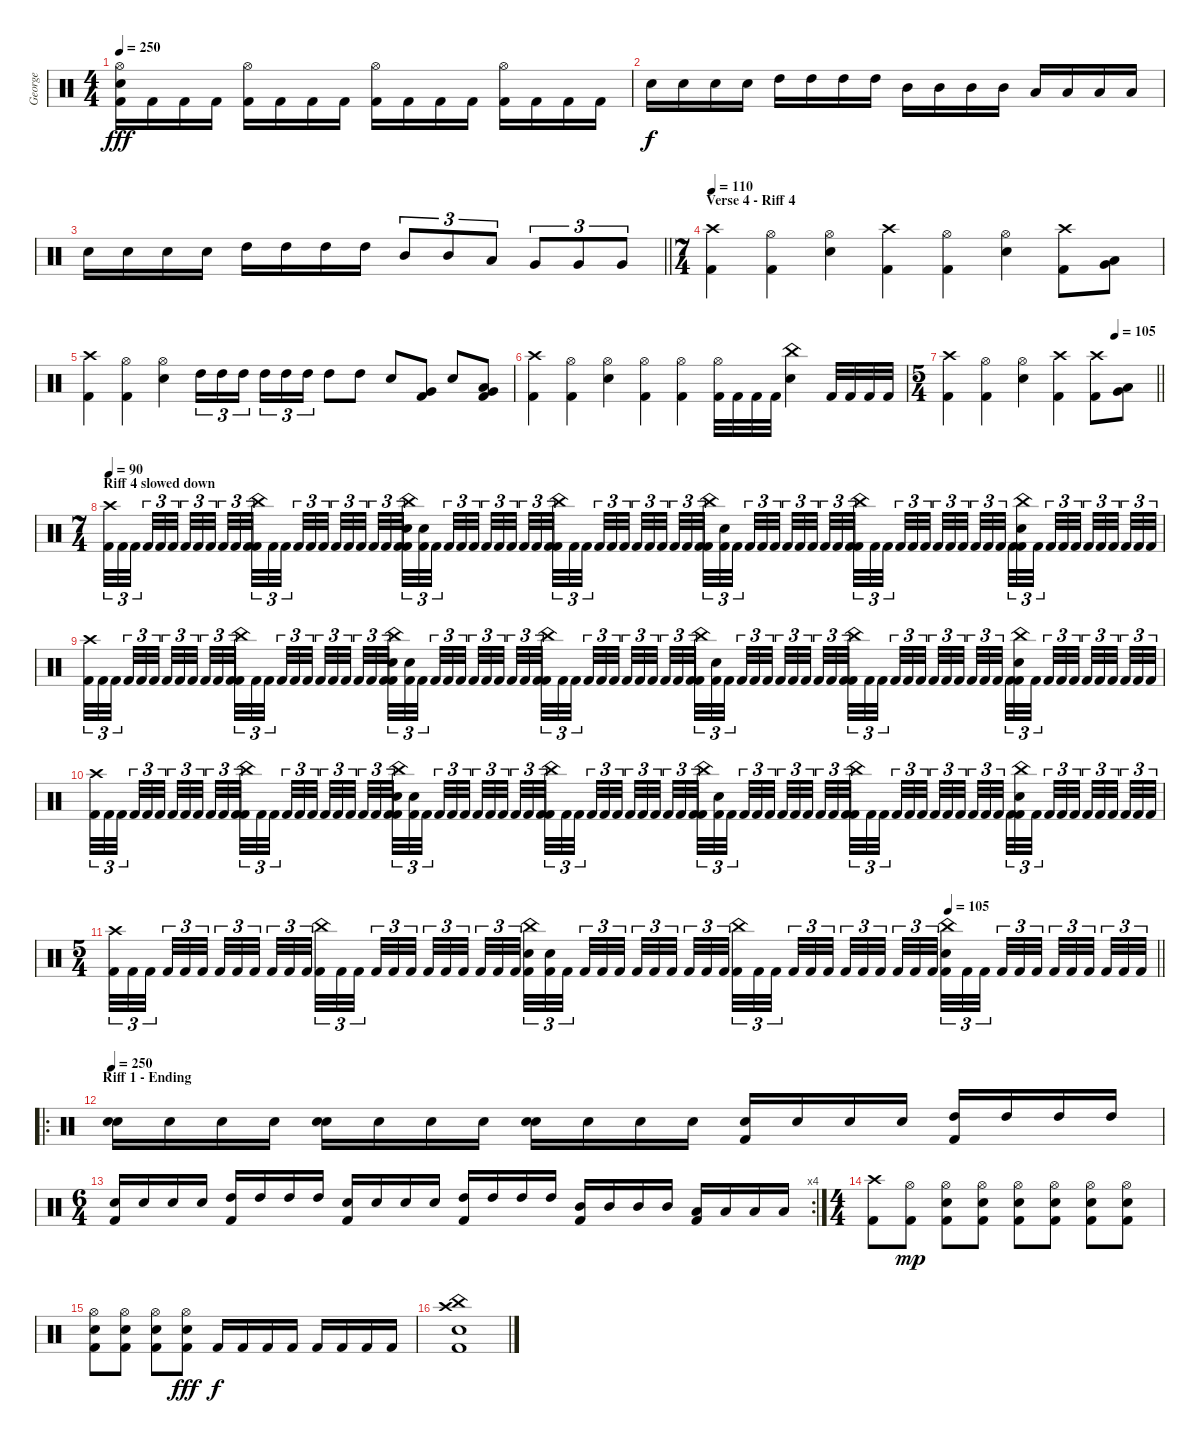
\track ("George" "George") {instrument percussion}
\staff {score}
\articulation defaults
\ts (4 4)
\tempo 250
\clef neutral
\ks c
("Hi-Hat (open)" "Snare (hit) 2" "Kick (hit) 2").16{dy fff} "Kick (hit) 2".16 "Kick (hit) 2".16 "Kick (hit) 2".16 ("Hi-Hat (open)" "Kick (hit) 2").16 "Kick (hit) 2".16 "Kick (hit) 2".16 "Kick (hit) 2".16 ("Hi-Hat (open)" "Kick (hit) 2").16 "Kick (hit) 2".16 "Kick (hit) 2".16 "Kick (hit) 2".16 ("Hi-Hat (open)" "Kick (hit) 2").16 "Kick (hit) 2".16 "Kick (hit) 2".16 "Kick (hit) 2".16 |
"Snare (hit) 2".16{dy f} "Snare (hit) 2".16 "Snare (hit) 2".16 "Snare (hit) 2".16 "High Tom (hit)".16 "High Tom (hit)".16 "High Tom (hit)".16 "High Tom (hit)".16 "Mid Tom (hit)".16 "Mid Tom (hit)".16 "Mid Tom (hit)".16 "Mid Tom (hit)".16 "Low Tom (hit)".16 "Low Tom (hit)".16 "Low Tom (hit)".16 "Low Tom (hit)".16 |
\barLineRight lightlight "Snare (hit) 2".16 "Snare (hit) 2".16 "Snare (hit) 2".16 "Snare (hit) 2".16 "High Tom (hit)".16 "High Tom (hit)".16 "High Tom (hit)".16 "High Tom (hit)".16 "Mid Tom (hit)".8{tu (3 2)} "Mid Tom (hit)".8{tu (3 2)} "Low Tom (hit)".8{tu (3 2)} "Very Low Tom (hit)".8{tu (3 2)} "Very Low Tom (hit)".8{tu (3 2)} "Very Low Tom (hit)".8{tu (3 2)}
|
\ts (7 4)
\section ("" "Verse 4 - Riff 4")
\tempo 110
("Crash high (hit)" "Kick (hit) 2").4 ("Kick (hit) 2" "Hi-Hat (open)").4 ("Hi-Hat (open)" "Snare (hit) 2").4 ("Crash high (hit)" "Kick (hit) 2").4 ("Kick (hit) 2" "Hi-Hat (open)").4 ("Hi-Hat (open)" "Snare (hit) 2").4 ("Crash high (hit)" "Kick (hit) 2").8 ("Low Tom (hit)" "Very Low Tom (hit)").8 |
("Crash high (hit)" "Kick (hit) 2").4 ("Kick (hit) 2" "Hi-Hat (open)").4 ("Hi-Hat (open)" "Snare (hit) 2").4 "High Tom (hit)".16{tu (3 2)} "High Tom (hit)".16{tu (3 2)} "High Tom (hit)".16{tu (3 2) beam splitsecondary} "High Tom (hit)".16{tu (3 2)} "High Tom (hit)".16{tu (3 2)} "High Tom (hit)".16{tu (3 2)} "High Tom (hit)".8 "High Tom (hit)".8 "Snare (hit) 2".8 ("Very Low Tom (hit)" "Kick (hit) 2").8 "Snare (hit) 2".8 ("Very Low Tom (hit)" "Low Tom (hit)" "Kick (hit) 2").8 |
("Crash high (hit)" "Kick (hit) 2").4 ("Kick (hit) 2" "Hi-Hat (open)").4 ("Hi-Hat (open)" "Snare (hit) 2").4 ("Hi-Hat (open)" "Kick (hit) 2").4 ("Hi-Hat (open)" "Kick (hit) 2").4 ("Hi-Hat (open)" "Kick (hit) 2").32 "Kick (hit) 2".32 "Kick (hit) 2".32 "Kick (hit) 2".32 ("China (hit)" "Snare (hit) 2").4 "Kick (hit) 2".32 "Kick (hit) 2".32 "Kick (hit) 2".32 "Kick (hit) 2".32 |
\ts (5 4)
\tempo (105 0.8)
\barLineRight lightlight
("Crash high (hit)" "Kick (hit) 2").4 ("Kick (hit) 2" "Hi-Hat (open)").4 ("Hi-Hat (open)" "Snare (hit) 2").4 ("Crash high (hit)" "Kick (hit) 2").4 ("Crash high (hit)" "Kick (hit) 2").8 ("Low Tom (hit)" "Very Low Tom (hit)").8 |
\ts (7 4)
\section ("" "Riff 4 slowed down")
\tempo 90
("Crash high (hit)" "Kick (hit) 2").32{tu (3 2)} "Kick (hit) 2".32{tu (3 2)} "Kick (hit) 2".32{tu (3 2) beam splitsecondary} "Kick (hit) 2".32{tu (3 2)} "Kick (hit) 2".32{tu (3 2)} "Kick (hit) 2".32{tu (3 2) beam splitsecondary} "Kick (hit) 2".32{tu (3 2)} "Kick (hit) 2".32{tu (3 2)} "Kick (hit) 2".32{tu (3 2) beam splitsecondary} "Kick (hit) 2".32{tu (3 2)} "Kick (hit) 2".32{tu (3 2)} "Kick (hit) 2".32{tu (3 2)} ("China (hit)" "Kick (hit) 2").32{tu (3 2)} "Kick (hit) 2".32{tu (3 2)} "Kick (hit) 2".32{tu (3 2) beam splitsecondary} "Kick (hit) 2".32{tu (3 2)} "Kick (hit) 2".32{tu (3 2)} "Kick (hit) 2".32{tu (3 2) beam splitsecondary} "Kick (hit) 2".32{tu (3 2)} "Kick (hit) 2".32{tu (3 2)} "Kick (hit) 2".32{tu (3 2) beam splitsecondary} "Kick (hit) 2".32{tu (3 2)} "Kick (hit) 2".32{tu (3 2)} "Kick (hit) 2".32{tu (3 2)} ("Snare (hit) 2" "China (hit)" "Kick (hit) 2").32{tu (3 2)} ("Snare (hit)" "Kick (hit) 2").32{tu (3 2)} "Kick (hit) 2".32{tu (3 2) beam splitsecondary} "Kick (hit) 2".32{tu (3 2)} "Kick (hit) 2".32{tu (3 2)} "Kick (hit) 2".32{tu (3 2) beam splitsecondary} "Kick (hit) 2".32{tu (3 2)} "Kick (hit) 2".32{tu (3 2)} "Kick (hit) 2".32{tu (3 2) beam splitsecondary} "Kick (hit) 2".32{tu (3 2)} "Kick (hit) 2".32{tu (3 2)} "Kick (hit) 2".32{tu (3 2)} ("China (hit)" "Kick (hit) 2").32{tu (3 2)} "Kick (hit) 2".32{tu (3 2)} "Kick (hit) 2".32{tu (3 2) beam splitsecondary} "Kick (hit) 2".32{tu (3 2)} "Kick (hit) 2".32{tu (3 2)} "Kick (hit) 2".32{tu (3 2) beam splitsecondary} "Kick (hit) 2".32{tu (3 2)} "Kick (hit) 2".32{tu (3 2)} "Kick (hit) 2".32{tu (3 2) beam splitsecondary} "Kick (hit) 2".32{tu (3 2)} "Kick (hit) 2".32{tu (3 2)} "Kick (hit) 2".32{tu (3 2)} ("China (hit)" "Kick (hit) 2").32{tu (3 2)} ("Snare (hit)" "Kick (hit) 2").32{tu (3 2)} "Kick (hit) 2".32{tu (3 2) beam splitsecondary} "Kick (hit) 2".32{tu (3 2)} "Kick (hit) 2".32{tu (3 2)} "Kick (hit) 2".32{tu (3 2) beam splitsecondary} "Kick (hit) 2".32{tu (3 2)} "Kick (hit) 2".32{tu (3 2)} "Kick (hit) 2".32{tu (3 2) beam splitsecondary} "Kick (hit) 2".32{tu (3 2)} "Kick (hit) 2".32{tu (3 2)} "Kick (hit) 2".32{tu (3 2)} ("China (hit)" "Kick (hit) 2").32{tu (3 2)} "Kick (hit) 2".32{tu (3 2)} "Kick (hit) 2".32{tu (3 2) beam splitsecondary} "Kick (hit) 2".32{tu (3 2)} "Kick (hit) 2".32{tu (3 2)} "Kick (hit) 2".32{tu (3 2) beam splitsecondary} "Kick (hit) 2".32{tu (3 2)} "Kick (hit) 2".32{tu (3 2)} "Kick (hit) 2".32{tu (3 2) beam splitsecondary} "Kick (hit) 2".32{tu (3 2)} "Kick (hit) 2".32{tu (3 2)} "Kick (hit) 2".32{tu (3 2)} "Kick (hit) 2".32{tu (3 2)} ("Snare (hit) 2" "China (hit)" "Kick (hit) 2").32{tu (3 2)} "Kick (hit) 2".32{tu (3 2) beam splitsecondary} "Kick (hit) 2".32{tu (3 2)} "Kick (hit) 2".32{tu (3 2)} "Kick (hit) 2".32{tu (3 2) beam splitsecondary} "Kick (hit) 2".32{tu (3 2)} "Kick (hit) 2".32{tu (3 2)} "Kick (hit) 2".32{tu (3 2) beam splitsecondary} "Kick (hit) 2".32{tu (3 2)} "Kick (hit) 2".32{tu (3 2)} "Kick (hit) 2".32{tu (3 2)} |
("Crash high (hit)" "Kick (hit) 2").32{tu (3 2)} "Kick (hit) 2".32{tu (3 2)} "Kick (hit) 2".32{tu (3 2) beam splitsecondary} "Kick (hit) 2".32{tu (3 2)} "Kick (hit) 2".32{tu (3 2)} "Kick (hit) 2".32{tu (3 2) beam splitsecondary} "Kick (hit) 2".32{tu (3 2)} "Kick (hit) 2".32{tu (3 2)} "Kick (hit) 2".32{tu (3 2) beam splitsecondary} "Kick (hit) 2".32{tu (3 2)} "Kick (hit) 2".32{tu (3 2)} "Kick (hit) 2".32{tu (3 2)} ("China (hit)" "Kick (hit) 2").32{tu (3 2)} "Kick (hit) 2".32{tu (3 2)} "Kick (hit) 2".32{tu (3 2) beam splitsecondary} "Kick (hit) 2".32{tu (3 2)} "Kick (hit) 2".32{tu (3 2)} "Kick (hit) 2".32{tu (3 2) beam splitsecondary} "Kick (hit) 2".32{tu (3 2)} "Kick (hit) 2".32{tu (3 2)} "Kick (hit) 2".32{tu (3 2) beam splitsecondary} "Kick (hit) 2".32{tu (3 2)} "Kick (hit) 2".32{tu (3 2)} "Kick (hit) 2".32{tu (3 2)} ("Snare (hit) 2" "China (hit)" "Kick (hit) 2").32{tu (3 2)} ("Snare (hit)" "Kick (hit) 2").32{tu (3 2)} "Kick (hit) 2".32{tu (3 2) beam splitsecondary} "Kick (hit) 2".32{tu (3 2)} "Kick (hit) 2".32{tu (3 2)} "Kick (hit) 2".32{tu (3 2) beam splitsecondary} "Kick (hit) 2".32{tu (3 2)} "Kick (hit) 2".32{tu (3 2)} "Kick (hit) 2".32{tu (3 2) beam splitsecondary} "Kick (hit) 2".32{tu (3 2)} "Kick (hit) 2".32{tu (3 2)} "Kick (hit) 2".32{tu (3 2)} ("China (hit)" "Kick (hit) 2").32{tu (3 2)} "Kick (hit) 2".32{tu (3 2)} "Kick (hit) 2".32{tu (3 2) beam splitsecondary} "Kick (hit) 2".32{tu (3 2)} "Kick (hit) 2".32{tu (3 2)} "Kick (hit) 2".32{tu (3 2) beam splitsecondary} "Kick (hit) 2".32{tu (3 2)} "Kick (hit) 2".32{tu (3 2)} "Kick (hit) 2".32{tu (3 2) beam splitsecondary} "Kick (hit) 2".32{tu (3 2)} "Kick (hit) 2".32{tu (3 2)} "Kick (hit) 2".32{tu (3 2)} ("China (hit)" "Kick (hit) 2").32{tu (3 2)} ("Snare (hit)" "Kick (hit) 2").32{tu (3 2)} "Kick (hit) 2".32{tu (3 2) beam splitsecondary} "Kick (hit) 2".32{tu (3 2)} "Kick (hit) 2".32{tu (3 2)} "Kick (hit) 2".32{tu (3 2) beam splitsecondary} "Kick (hit) 2".32{tu (3 2)} "Kick (hit) 2".32{tu (3 2)} "Kick (hit) 2".32{tu (3 2) beam splitsecondary} "Kick (hit) 2".32{tu (3 2)} "Kick (hit) 2".32{tu (3 2)} "Kick (hit) 2".32{tu (3 2)} ("China (hit)" "Kick (hit) 2").32{tu (3 2)} "Kick (hit) 2".32{tu (3 2)} "Kick (hit) 2".32{tu (3 2) beam splitsecondary} "Kick (hit) 2".32{tu (3 2)} "Kick (hit) 2".32{tu (3 2)} "Kick (hit) 2".32{tu (3 2) beam splitsecondary} "Kick (hit) 2".32{tu (3 2)} "Kick (hit) 2".32{tu (3 2)} "Kick (hit) 2".32{tu (3 2) beam splitsecondary} "Kick (hit) 2".32{tu (3 2)} "Kick (hit) 2".32{tu (3 2)} "Kick (hit) 2".32{tu (3 2)} "Kick (hit) 2".32{tu (3 2)} ("Snare (hit) 2" "China (hit)" "Kick (hit) 2").32{tu (3 2)} "Kick (hit) 2".32{tu (3 2) beam splitsecondary} "Kick (hit) 2".32{tu (3 2)} "Kick (hit) 2".32{tu (3 2)} "Kick (hit) 2".32{tu (3 2) beam splitsecondary} "Kick (hit) 2".32{tu (3 2)} "Kick (hit) 2".32{tu (3 2)} "Kick (hit) 2".32{tu (3 2) beam splitsecondary} "Kick (hit) 2".32{tu (3 2)} "Kick (hit) 2".32{tu (3 2)} "Kick (hit) 2".32{tu (3 2)} |
("Crash high (hit)" "Kick (hit) 2").32{tu (3 2)} "Kick (hit) 2".32{tu (3 2)} "Kick (hit) 2".32{tu (3 2) beam splitsecondary} "Kick (hit) 2".32{tu (3 2)} "Kick (hit) 2".32{tu (3 2)} "Kick (hit) 2".32{tu (3 2) beam splitsecondary} "Kick (hit) 2".32{tu (3 2)} "Kick (hit) 2".32{tu (3 2)} "Kick (hit) 2".32{tu (3 2) beam splitsecondary} "Kick (hit) 2".32{tu (3 2)} "Kick (hit) 2".32{tu (3 2)} "Kick (hit) 2".32{tu (3 2)} ("China (hit)" "Kick (hit) 2").32{tu (3 2)} "Kick (hit) 2".32{tu (3 2)} "Kick (hit) 2".32{tu (3 2) beam splitsecondary} "Kick (hit) 2".32{tu (3 2)} "Kick (hit) 2".32{tu (3 2)} "Kick (hit) 2".32{tu (3 2) beam splitsecondary} "Kick (hit) 2".32{tu (3 2)} "Kick (hit) 2".32{tu (3 2)} "Kick (hit) 2".32{tu (3 2) beam splitsecondary} "Kick (hit) 2".32{tu (3 2)} "Kick (hit) 2".32{tu (3 2)} "Kick (hit) 2".32{tu (3 2)} ("Snare (hit) 2" "China (hit)" "Kick (hit) 2").32{tu (3 2)} ("Snare (hit)" "Kick (hit) 2").32{tu (3 2)} "Kick (hit) 2".32{tu (3 2) beam splitsecondary} "Kick (hit) 2".32{tu (3 2)} "Kick (hit) 2".32{tu (3 2)} "Kick (hit) 2".32{tu (3 2) beam splitsecondary} "Kick (hit) 2".32{tu (3 2)} "Kick (hit) 2".32{tu (3 2)} "Kick (hit) 2".32{tu (3 2) beam splitsecondary} "Kick (hit) 2".32{tu (3 2)} "Kick (hit) 2".32{tu (3 2)} "Kick (hit) 2".32{tu (3 2)} ("China (hit)" "Kick (hit) 2").32{tu (3 2)} "Kick (hit) 2".32{tu (3 2)} "Kick (hit) 2".32{tu (3 2) beam splitsecondary} "Kick (hit) 2".32{tu (3 2)} "Kick (hit) 2".32{tu (3 2)} "Kick (hit) 2".32{tu (3 2) beam splitsecondary} "Kick (hit) 2".32{tu (3 2)} "Kick (hit) 2".32{tu (3 2)} "Kick (hit) 2".32{tu (3 2) beam splitsecondary} "Kick (hit) 2".32{tu (3 2)} "Kick (hit) 2".32{tu (3 2)} "Kick (hit) 2".32{tu (3 2)} ("China (hit)" "Kick (hit) 2").32{tu (3 2)} ("Snare (hit)" "Kick (hit) 2").32{tu (3 2)} "Kick (hit) 2".32{tu (3 2) beam splitsecondary} "Kick (hit) 2".32{tu (3 2)} "Kick (hit) 2".32{tu (3 2)} "Kick (hit) 2".32{tu (3 2) beam splitsecondary} "Kick (hit) 2".32{tu (3 2)} "Kick (hit) 2".32{tu (3 2)} "Kick (hit) 2".32{tu (3 2) beam splitsecondary} "Kick (hit) 2".32{tu (3 2)} "Kick (hit) 2".32{tu (3 2)} "Kick (hit) 2".32{tu (3 2)} ("China (hit)" "Kick (hit) 2").32{tu (3 2)} "Kick (hit) 2".32{tu (3 2)} "Kick (hit) 2".32{tu (3 2) beam splitsecondary} "Kick (hit) 2".32{tu (3 2)} "Kick (hit) 2".32{tu (3 2)} "Kick (hit) 2".32{tu (3 2) beam splitsecondary} "Kick (hit) 2".32{tu (3 2)} "Kick (hit) 2".32{tu (3 2)} "Kick (hit) 2".32{tu (3 2) beam splitsecondary} "Kick (hit) 2".32{tu (3 2)} "Kick (hit) 2".32{tu (3 2)} "Kick (hit) 2".32{tu (3 2)} "Kick (hit) 2".32{tu (3 2)} ("Snare (hit) 2" "China (hit)" "Kick (hit) 2").32{tu (3 2)} "Kick (hit) 2".32{tu (3 2) beam splitsecondary} "Kick (hit) 2".32{tu (3 2)} "Kick (hit) 2".32{tu (3 2)} "Kick (hit) 2".32{tu (3 2) beam splitsecondary} "Kick (hit) 2".32{tu (3 2)} "Kick (hit) 2".32{tu (3 2)} "Kick (hit) 2".32{tu (3 2) beam splitsecondary} "Kick (hit) 2".32{tu (3 2)} "Kick (hit) 2".32{tu (3 2)} "Kick (hit) 2".32{tu (3 2)} |
\ts (5 4)
\tempo (105 0.8)
\barLineRight lightlight
("Crash high (hit)" "Kick (hit) 2").32{tu (3 2)} "Kick (hit) 2".32{tu (3 2)} "Kick (hit) 2".32{tu (3 2) beam splitsecondary} "Kick (hit) 2".32{tu (3 2)} "Kick (hit) 2".32{tu (3 2)} "Kick (hit) 2".32{tu (3 2) beam splitsecondary} "Kick (hit) 2".32{tu (3 2)} "Kick (hit) 2".32{tu (3 2)} "Kick (hit) 2".32{tu (3 2) beam splitsecondary} "Kick (hit) 2".32{tu (3 2)} "Kick (hit) 2".32{tu (3 2)} "Kick (hit) 2".32{tu (3 2)} ("China (hit)" "Kick (hit) 2").32{tu (3 2)} "Kick (hit) 2".32{tu (3 2)} "Kick (hit) 2".32{tu (3 2) beam splitsecondary} "Kick (hit) 2".32{tu (3 2)} "Kick (hit) 2".32{tu (3 2)} "Kick (hit) 2".32{tu (3 2) beam splitsecondary} "Kick (hit) 2".32{tu (3 2)} "Kick (hit) 2".32{tu (3 2)} "Kick (hit) 2".32{tu (3 2) beam splitsecondary} "Kick (hit) 2".32{tu (3 2)} "Kick (hit) 2".32{tu (3 2)} "Kick (hit) 2".32{tu (3 2)} ("Snare (hit) 2" "China (hit)" "Kick (hit) 2").32{tu (3 2)} ("Snare (hit)" "Kick (hit) 2").32{tu (3 2)} "Kick (hit) 2".32{tu (3 2) beam splitsecondary} "Kick (hit) 2".32{tu (3 2)} "Kick (hit) 2".32{tu (3 2)} "Kick (hit) 2".32{tu (3 2) beam splitsecondary} "Kick (hit) 2".32{tu (3 2)} "Kick (hit) 2".32{tu (3 2)} "Kick (hit) 2".32{tu (3 2) beam splitsecondary} "Kick (hit) 2".32{tu (3 2)} "Kick (hit) 2".32{tu (3 2)} "Kick (hit) 2".32{tu (3 2)} ("China (hit)" "Kick (hit) 2").32{tu (3 2)} "Kick (hit) 2".32{tu (3 2)} "Kick (hit) 2".32{tu (3 2) beam splitsecondary} "Kick (hit) 2".32{tu (3 2)} "Kick (hit) 2".32{tu (3 2)} "Kick (hit) 2".32{tu (3 2) beam splitsecondary} "Kick (hit) 2".32{tu (3 2)} "Kick (hit) 2".32{tu (3 2)} "Kick (hit) 2".32{tu (3 2) beam splitsecondary} "Kick (hit) 2".32{tu (3 2)} "Kick (hit) 2".32{tu (3 2)} "Kick (hit) 2".32{tu (3 2)} ("Snare (hit) 2" "China (hit)" "Kick (hit) 2").32{tu (3 2)} "Kick (hit) 2".32{tu (3 2)} "Kick (hit) 2".32{tu (3 2) beam splitsecondary} "Kick (hit) 2".32{tu (3 2)} "Kick (hit) 2".32{tu (3 2)} "Kick (hit) 2".32{tu (3 2) beam splitsecondary} "Kick (hit) 2".32{tu (3 2)} "Kick (hit) 2".32{tu (3 2)} "Kick (hit) 2".32{tu (3 2) beam splitsecondary} "Kick (hit) 2".32{tu (3 2)} "Kick (hit) 2".32{tu (3 2)} "Kick (hit) 2".32{tu (3 2)} |
\ro
\section ("" "Riff 1 - Ending")
\tempo 250
("Snare (hit)" "Snare (hit) 2").16 "Snare (hit) 2".16 "Snare (hit) 2".16 "Snare (hit) 2".16 ("Snare (hit)" "Snare (hit) 2").16 "Snare (hit) 2".16 "Snare (hit) 2".16 "Snare (hit) 2".16 ("Snare (hit)" "Snare (hit) 2").16 "Snare (hit) 2".16 "Snare (hit) 2".16 "Snare (hit) 2".16 ("Kick (hit) 2" "Snare (hit) 2").16 "Snare (hit) 2".16 "Snare (hit) 2".16 "Snare (hit) 2".16 ("Kick (hit) 2" "High Tom (hit)").16 "High Tom (hit)".16 "High Tom (hit)".16 "High Tom (hit)".16 |
\rc 4
\ts (6 4)
("Kick (hit) 2" "Snare (hit) 2").16 "Snare (hit) 2".16 "Snare (hit) 2".16 "Snare (hit) 2".16 ("Kick (hit) 2" "High Tom (hit)").16 "High Tom (hit)".16 "High Tom (hit)".16 "High Tom (hit)".16 ("Kick (hit) 2" "Snare (hit) 2").16 "Snare (hit) 2".16 "Snare (hit) 2".16 "Snare (hit) 2".16 ("Kick (hit) 2" "High Tom (hit)").16 "High Tom (hit)".16 "High Tom (hit)".16 "High Tom (hit)".16 ("Kick (hit) 2" "Mid Tom (hit)").16 "Mid Tom (hit)".16 "Mid Tom (hit)".16 "Mid Tom (hit)".16 ("Kick (hit) 2" "Low Tom (hit)").16 "Low Tom (hit)".16 "Low Tom (hit)".16 "Low Tom (hit)".16 |
\ts (4 4)
("Crash high (hit)" "Kick (hit) 2").8 ("Hi-Hat (open)" "Kick (hit) 2").8{dy mp} ("Hi-Hat (open)" "Snare (hit) 2" "Kick (hit) 2").8 ("Hi-Hat (open)" "Snare (hit) 2" "Kick (hit) 2").8 ("Hi-Hat (open)" "Snare (hit) 2" "Kick (hit) 2").8 ("Hi-Hat (open)" "Snare (hit) 2" "Kick (hit) 2").8 ("Hi-Hat (open)" "Snare (hit) 2" "Kick (hit) 2").8 ("Hi-Hat (open)" "Snare (hit) 2" "Kick (hit) 2").8 |
("Hi-Hat (open)" "Snare (hit) 2" "Kick (hit) 2").8 ("Hi-Hat (open)" "Snare (hit) 2" "Kick (hit) 2").8 ("Hi-Hat (open)" "Snare (hit) 2" "Kick (hit) 2").8 ("Hi-Hat (open)" "Snare (hit) 2" "Kick (hit) 2").8{dy fff} "Kick (hit) 2".16{dy f} "Kick (hit) 2".16 "Kick (hit) 2".16 "Kick (hit) 2".16 "Kick (hit) 2".16 "Kick (hit) 2".16 "Kick (hit) 2".16 "Kick (hit) 2".16 |
("Crash high (hit)" "China (hit)" "Kick (hit) 2" "Snare (hit) 2").1
